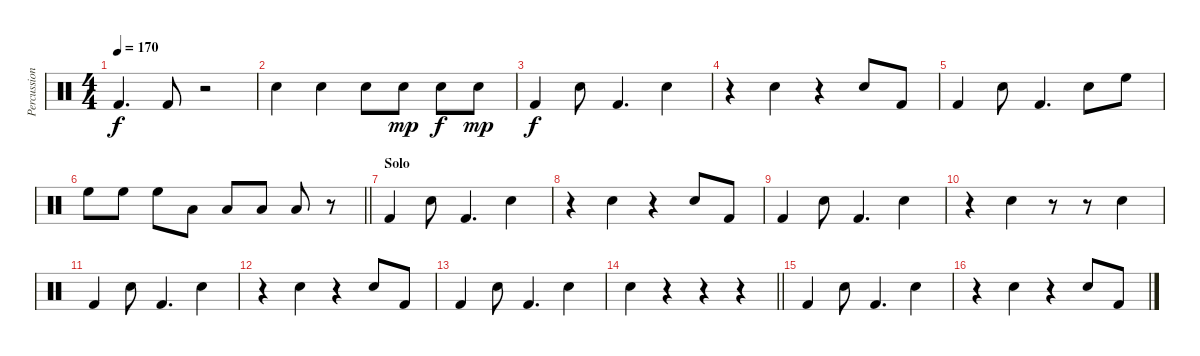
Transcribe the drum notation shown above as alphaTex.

\track ("Percussion" "Percussion") {instrument percussion}
\staff {score}
\articulation defaults
\ts (4 4)
\tempo 170
\clef neutral
\ks c "Kick (hit) 2".4{d dy f} "Kick (hit) 2".8
r.2 |
"Electric Snare (hit)".4 "Electric Snare (hit)".4 "Electric Snare (hit)".8 "Electric Snare (hit)".8{dy mp} "Electric Snare (hit)".8{dy f} "Electric Snare (hit)".8{dy mp} |
"Kick (hit) 2".4{dy f} "Hand Clap (hit)".8 "Kick (hit) 2".4{d} "Hand Clap (hit)".4 |
r.4 "Hand Clap (hit)".4 r.4 "Hand Clap (hit)".8 "Kick (hit) 2".8 |
"Kick (hit) 2".4 "Hand Clap (hit)".8 "Kick (hit) 2".4{d} "Hand Clap (hit)".8 "High Floor Tom (hit)".8 |
\barLineRight lightlight "High Floor Tom (hit)".8 "High Floor Tom (hit)".8 "High Floor Tom (hit)".8 "Low Tom (hit)".8 "Low Tom (hit)".8 "Low Tom (hit)".8 "Low Tom (hit)".8
r.8 |
\section ("" "Solo")
"Kick (hit) 2".4 "Hand Clap (hit)".8 "Kick (hit) 2".4{d} "Hand Clap (hit)".4 |
r.4 "Hand Clap (hit)".4 r.4 "Hand Clap (hit)".8 "Kick (hit) 2".8 |
"Kick (hit) 2".4 "Hand Clap (hit)".8 "Kick (hit) 2".4{d} "Hand Clap (hit)".4 |
r.4 "Hand Clap (hit)".4 r.8 r.8 "Hand Clap (hit)".4 |
"Kick (hit) 2".4 "Hand Clap (hit)".8 "Kick (hit) 2".4{d} "Hand Clap (hit)".4 |
r.4 "Hand Clap (hit)".4 r.4 "Hand Clap (hit)".8 "Kick (hit) 2".8 |
"Kick (hit) 2".4 "Hand Clap (hit)".8 "Kick (hit) 2".4{d} "Hand Clap (hit)".4 |
\barLineRight lightlight "Hand Clap (hit)".4
r.4 r.4 r.4 |
"Kick (hit) 2".4 "Hand Clap (hit)".8 "Kick (hit) 2".4{d} "Hand Clap (hit)".4 |
r.4 "Hand Clap (hit)".4 r.4 "Hand Clap (hit)".8 "Kick (hit) 2".8
